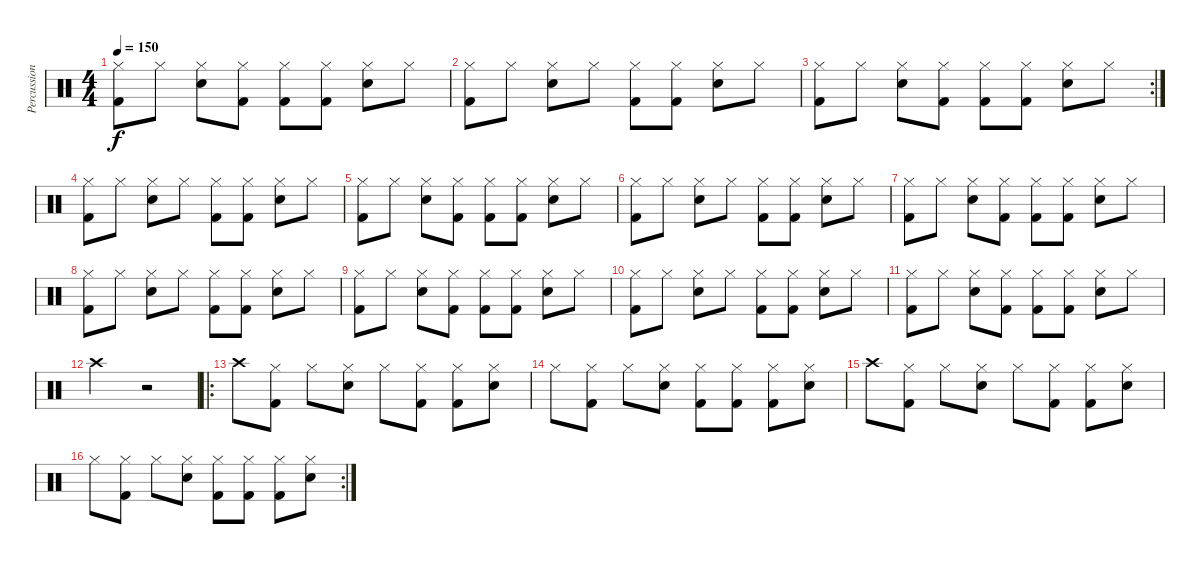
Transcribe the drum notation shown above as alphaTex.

\track ("Percussion" "Percussion") {instrument percussion}
\staff {score}
\articulation defaults
\ts (4 4)
\tempo 150
\clef neutral
\ks c
("Hi-Hat (closed)" "Kick (hit) 2").8{dy f} "Hi-Hat (closed)".8 ("Hi-Hat (closed)" "Snare (hit) 2").8 ("Hi-Hat (closed)" "Kick (hit) 2").8 ("Hi-Hat (closed)" "Kick (hit) 2").8 ("Hi-Hat (closed)" "Kick (hit) 2").8 ("Hi-Hat (closed)" "Snare (hit) 2").8 "Hi-Hat (closed)".8 |
("Hi-Hat (closed)" "Kick (hit) 2").8 "Hi-Hat (closed)".8 ("Hi-Hat (closed)" "Snare (hit) 2").8 "Hi-Hat (closed)".8 ("Hi-Hat (closed)" "Kick (hit) 2").8 ("Hi-Hat (closed)" "Kick (hit) 2").8 ("Hi-Hat (closed)" "Snare (hit) 2").8 "Hi-Hat (closed)".8 |
\rc 2
("Hi-Hat (closed)" "Kick (hit) 2").8 "Hi-Hat (closed)".8 ("Hi-Hat (closed)" "Snare (hit) 2").8 ("Hi-Hat (closed)" "Kick (hit) 2").8 ("Hi-Hat (closed)" "Kick (hit) 2").8 ("Hi-Hat (closed)" "Kick (hit) 2").8 ("Hi-Hat (closed)" "Snare (hit) 2").8 "Hi-Hat (closed)".8 |
("Hi-Hat (closed)" "Kick (hit) 2").8 "Hi-Hat (closed)".8 ("Hi-Hat (closed)" "Snare (hit) 2").8 "Hi-Hat (closed)".8 ("Hi-Hat (closed)" "Kick (hit) 2").8 ("Hi-Hat (closed)" "Kick (hit) 2").8 ("Hi-Hat (closed)" "Snare (hit) 2").8 "Hi-Hat (closed)".8 |
("Hi-Hat (closed)" "Kick (hit) 2").8 "Hi-Hat (closed)".8 ("Hi-Hat (closed)" "Snare (hit) 2").8 ("Hi-Hat (closed)" "Kick (hit) 2").8 ("Hi-Hat (closed)" "Kick (hit) 2").8 ("Hi-Hat (closed)" "Kick (hit) 2").8 ("Hi-Hat (closed)" "Snare (hit) 2").8 "Hi-Hat (closed)".8 |
("Hi-Hat (closed)" "Kick (hit) 2").8 "Hi-Hat (closed)".8 ("Hi-Hat (closed)" "Snare (hit) 2").8 "Hi-Hat (closed)".8 ("Hi-Hat (closed)" "Kick (hit) 2").8 ("Hi-Hat (closed)" "Kick (hit) 2").8 ("Hi-Hat (closed)" "Snare (hit) 2").8 "Hi-Hat (closed)".8 |
("Hi-Hat (closed)" "Kick (hit) 2").8 "Hi-Hat (closed)".8 ("Hi-Hat (closed)" "Snare (hit) 2").8 ("Hi-Hat (closed)" "Kick (hit) 2").8 ("Hi-Hat (closed)" "Kick (hit) 2").8 ("Hi-Hat (closed)" "Kick (hit) 2").8 ("Hi-Hat (closed)" "Snare (hit) 2").8 "Hi-Hat (closed)".8 |
("Hi-Hat (closed)" "Kick (hit) 2").8 "Hi-Hat (closed)".8 ("Hi-Hat (closed)" "Snare (hit) 2").8 "Hi-Hat (closed)".8 ("Hi-Hat (closed)" "Kick (hit) 2").8 ("Hi-Hat (closed)" "Kick (hit) 2").8 ("Hi-Hat (closed)" "Snare (hit) 2").8 "Hi-Hat (closed)".8 |
("Hi-Hat (closed)" "Kick (hit) 2").8 "Hi-Hat (closed)".8 ("Hi-Hat (closed)" "Snare (hit) 2").8 ("Hi-Hat (closed)" "Kick (hit) 2").8 ("Hi-Hat (closed)" "Kick (hit) 2").8 ("Hi-Hat (closed)" "Kick (hit) 2").8 ("Hi-Hat (closed)" "Snare (hit) 2").8 "Hi-Hat (closed)".8 |
("Hi-Hat (closed)" "Kick (hit) 2").8 "Hi-Hat (closed)".8 ("Hi-Hat (closed)" "Snare (hit) 2").8 "Hi-Hat (closed)".8 ("Hi-Hat (closed)" "Kick (hit) 2").8 ("Hi-Hat (closed)" "Kick (hit) 2").8 ("Hi-Hat (closed)" "Snare (hit) 2").8 "Hi-Hat (closed)".8 |
("Hi-Hat (closed)" "Kick (hit) 2").8 "Hi-Hat (closed)".8 ("Hi-Hat (closed)" "Snare (hit) 2").8 ("Hi-Hat (closed)" "Kick (hit) 2").8 ("Hi-Hat (closed)" "Kick (hit) 2").8 ("Hi-Hat (closed)" "Kick (hit) 2").8 ("Hi-Hat (closed)" "Snare (hit) 2").8 "Hi-Hat (closed)".8 |
"Crash high (hit)".2 r.2 |
\ro "Crash high (hit)".8
("Hi-Hat (closed)" "Kick (hit) 2").8 "Hi-Hat (closed)".8 ("Hi-Hat (closed)" "Snare (hit) 2").8 "Hi-Hat (closed)".8 ("Hi-Hat (closed)" "Kick (hit) 2").8 ("Hi-Hat (closed)" "Kick (hit) 2").8 ("Hi-Hat (closed)" "Snare (hit) 2").8 |
"Hi-Hat (closed)".8 ("Hi-Hat (closed)" "Kick (hit) 2").8 "Hi-Hat (closed)".8 ("Hi-Hat (closed)" "Snare (hit) 2").8 ("Hi-Hat (closed)" "Kick (hit) 2").8 ("Hi-Hat (closed)" "Kick (hit) 2").8 ("Hi-Hat (closed)" "Kick (hit) 2").8 ("Hi-Hat (closed)" "Snare (hit) 2").8 |
"Crash high (hit)".8 ("Hi-Hat (closed)" "Kick (hit) 2").8 "Hi-Hat (closed)".8 ("Hi-Hat (closed)" "Snare (hit) 2").8 "Hi-Hat (closed)".8 ("Hi-Hat (closed)" "Kick (hit) 2").8 ("Hi-Hat (closed)" "Kick (hit) 2").8 ("Hi-Hat (closed)" "Snare (hit) 2").8 |
\rc 2 "Hi-Hat (closed)".8
("Hi-Hat (closed)" "Kick (hit) 2").8 "Hi-Hat (closed)".8 ("Hi-Hat (closed)" "Snare (hit) 2").8 ("Hi-Hat (closed)" "Kick (hit) 2").8 ("Hi-Hat (closed)" "Kick (hit) 2").8 ("Hi-Hat (closed)" "Kick (hit) 2").8 ("Hi-Hat (closed)" "Snare (hit) 2").8
